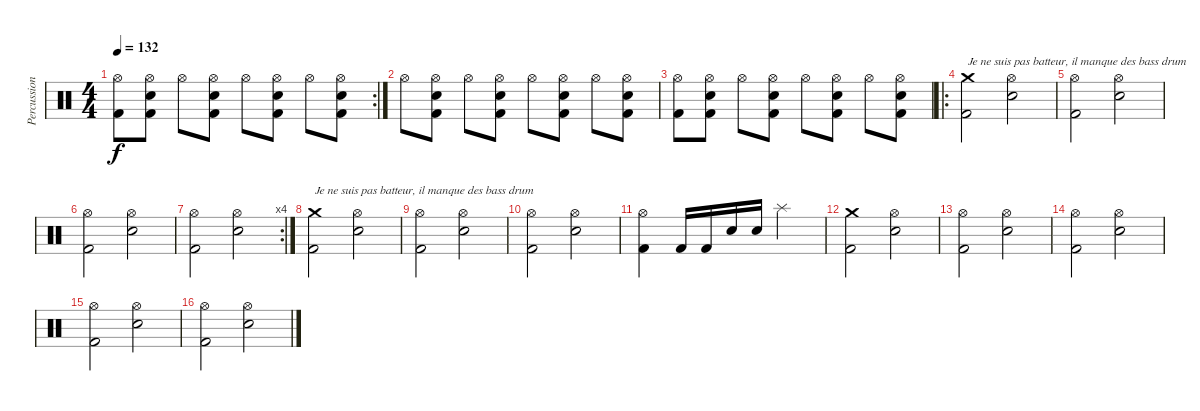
\track ("Percussions" "Percussion") {instrument percussion}
\staff {score}
\articulation defaults
\rc 2
\ts (4 4)
\tempo 132
\clef neutral
\ks c
("Hi-Hat (open)" "Kick (hit) 2").8{dy f} ("Hi-Hat (open)" "Electric Snare (hit)" "Kick (hit) 2").8 "Hi-Hat (open)".8 ("Hi-Hat (open)" "Electric Snare (hit)" "Kick (hit) 2").8 "Hi-Hat (open)".8 ("Hi-Hat (open)" "Electric Snare (hit)" "Kick (hit) 2").8 "Hi-Hat (open)".8 ("Hi-Hat (open)" "Electric Snare (hit)" "Kick (hit) 2").8 |
"Hi-Hat (open)".8 ("Hi-Hat (open)" "Electric Snare (hit)" "Kick (hit) 2").8 "Hi-Hat (open)".8 ("Hi-Hat (open)" "Electric Snare (hit)" "Kick (hit) 2").8 "Hi-Hat (open)".8 ("Hi-Hat (open)" "Electric Snare (hit)" "Kick (hit) 2").8 "Hi-Hat (open)".8 ("Hi-Hat (open)" "Electric Snare (hit)" "Kick (hit) 2").8 |
("Hi-Hat (open)" "Kick (hit) 2").8 ("Hi-Hat (open)" "Electric Snare (hit)" "Kick (hit) 2").8 "Hi-Hat (open)".8 ("Hi-Hat (open)" "Electric Snare (hit)" "Kick (hit) 2").8 "Hi-Hat (open)".8 ("Hi-Hat (open)" "Electric Snare (hit)" "Kick (hit) 2").8 "Hi-Hat (open)".8 ("Hi-Hat (open)" "Electric Snare (hit)" "Kick (hit) 2").8 |
\ro
("Crash medium (hit)" "Kick (hit) 2").2{txt "Je ne suis pas batteur, il manque des bass drum"} ("Hi-Hat (open)" "Electric Snare (hit)").2 |
("Hi-Hat (open)" "Kick (hit) 2").2 ("Hi-Hat (open)" "Electric Snare (hit)").2 |
("Hi-Hat (open)" "Kick (hit) 2").2 ("Hi-Hat (open)" "Electric Snare (hit)").2 |
\rc 4
("Hi-Hat (open)" "Kick (hit) 2").2 ("Hi-Hat (open)" "Electric Snare (hit)").2 |
("Crash medium (hit)" "Kick (hit) 2").2{txt "Je ne suis pas batteur, il manque des bass drum"} ("Hi-Hat (open)" "Electric Snare (hit)").2 |
("Hi-Hat (open)" "Kick (hit) 2").2 ("Hi-Hat (open)" "Electric Snare (hit)").2 |
("Hi-Hat (open)" "Kick (hit) 2").2 ("Hi-Hat (open)" "Electric Snare (hit)").2 |
("Hi-Hat (open)" "Kick (hit) 2").4 "Kick (hit) 2".16 "Kick (hit) 2".16 "Electric Snare (hit)".16 "Electric Snare (hit)".16 "Splash (hit)".2 |
("Crash medium (hit)" "Kick (hit) 2").2 ("Hi-Hat (open)" "Electric Snare (hit)").2 |
("Hi-Hat (open)" "Kick (hit) 2").2 ("Hi-Hat (open)" "Electric Snare (hit)").2 |
("Hi-Hat (open)" "Kick (hit) 2").2 ("Hi-Hat (open)" "Electric Snare (hit)").2 |
("Hi-Hat (open)" "Kick (hit) 2").2 ("Hi-Hat (open)" "Electric Snare (hit)").2 |
("Hi-Hat (open)" "Kick (hit) 2").2 ("Hi-Hat (open)" "Electric Snare (hit)").2
